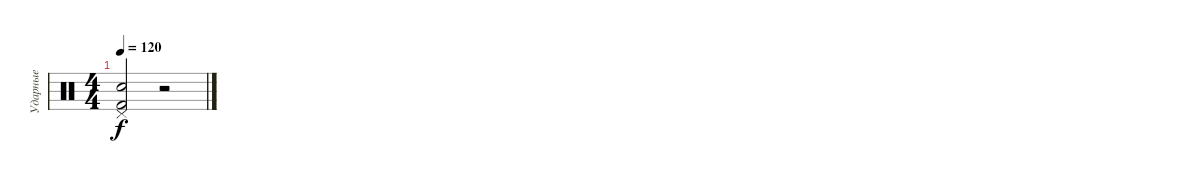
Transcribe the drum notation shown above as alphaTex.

\track ("Ударные" "Ударные") {instrument percussion}
\staff {score}
\articulation defaults
\ts (4 4)
\tempo 120
\clef neutral
\ks c
("Kick (hit) 2" "Electric Snare (hit)" "Pedal Hi-Hat (hit)").2{dy f} r.2
